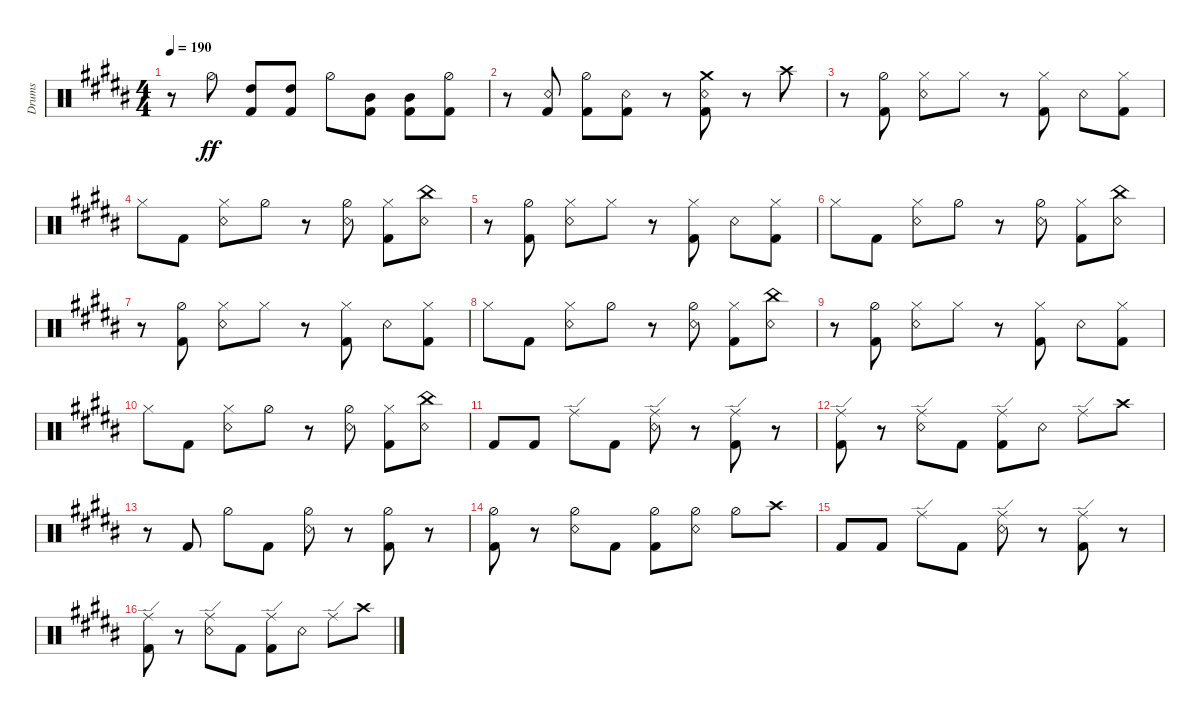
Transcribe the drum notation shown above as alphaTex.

\bracketExtendMode groupsimilarinstruments
\otherSystemsTrackNameOrientation horizontal
\track ("Drumkit" "Drums") {instrument percussion}
\staff {score}
\articulation defaults
\ts (4 4)
\tempo 190
\clef neutral
\ks b
r.8{dy ff} "Hi-Hat (half)"{acc forcenatural}.8 ("Kick (hit) 2"{acc forcenatural} "High Tom (hit)"{acc forcenatural}).8 ("Kick (hit) 2"{acc forcenatural} "High Tom (hit)"{acc forcenatural}).8 "Hi-Hat (half)"{acc forcenatural}.8 ("Kick (hit) 2"{acc forcenatural} "Mid Tom (hit)"{acc forcenatural}).8 ("Kick (hit) 2"{acc forcenatural} "Mid Tom (hit)"{acc forcenatural}).8 ("Kick (hit) 2"{acc forcenatural} "Hi-Hat (half)"{acc forcenatural}).8 |
r.8 ("Kick (hit) 2"{acc forcenatural} "Snare (rim shot)"{acc forcenatural}).8 ("Kick (hit) 2"{acc forcenatural} "Hi-Hat (half)"{acc forcenatural}).8 ("Kick (hit) 2"{acc forcenatural} "Snare (rim shot)"{acc forcenatural}).8 r.8 ("Kick (hit) 2"{acc forcenatural} "Snare (rim shot)"{acc forcenatural} "Crash medium (hit)"{acc forcenatural}).8 r.8 "Crash high (hit)"{acc forcenatural}.8 |
r.8 ("Kick (hit) 2"{acc forcenatural} "Hi-Hat (half)"{acc forcenatural}).8 ("Snare (rim shot)"{acc forcenatural} "Hi-Hat (closed)"{acc forcenatural}).8 "Hi-Hat (closed)"{acc forcenatural}.8 r.8 ("Hi-Hat (closed)"{acc forcenatural} "Kick (hit) 2"{acc forcenatural}).8 "Snare (rim shot)"{acc forcenatural}.8 ("Kick (hit) 2"{acc forcenatural} "Hi-Hat (closed)"{acc forcenatural}).8 |
"Hi-Hat (closed)"{acc forcenatural}.8 "Kick (hit) 2"{acc forcenatural}.8 ("Snare (rim shot)"{acc forcenatural} "Hi-Hat (closed)"{acc forcenatural}).8 "Hi-Hat (half)"{acc forcenatural}.8 r.8 ("Hi-Hat (half)"{acc forcenatural} "Snare (rim shot)"{acc forcenatural}).8 ("Hi-Hat (closed)"{acc forcenatural} "Kick (hit) 2"{acc forcenatural}).8 ("Snare (rim shot)"{acc forcenatural} "China (hit)"{acc forcenatural}).8 |
r.8 ("Kick (hit) 2"{acc forcenatural} "Hi-Hat (half)"{acc forcenatural}).8 ("Snare (rim shot)"{acc forcenatural} "Hi-Hat (closed)"{acc forcenatural}).8 "Hi-Hat (closed)"{acc forcenatural}.8 r.8 ("Hi-Hat (closed)"{acc forcenatural} "Kick (hit) 2"{acc forcenatural}).8 "Snare (rim shot)"{acc forcenatural}.8 ("Kick (hit) 2"{acc forcenatural} "Hi-Hat (closed)"{acc forcenatural}).8 |
"Hi-Hat (closed)"{acc forcenatural}.8 "Kick (hit) 2"{acc forcenatural}.8 ("Snare (rim shot)"{acc forcenatural} "Hi-Hat (closed)"{acc forcenatural}).8 "Hi-Hat (half)"{acc forcenatural}.8 r.8 ("Hi-Hat (half)"{acc forcenatural} "Snare (rim shot)"{acc forcenatural}).8 ("Hi-Hat (closed)"{acc forcenatural} "Kick (hit) 2"{acc forcenatural}).8 ("Snare (rim shot)"{acc forcenatural} "China (hit)"{acc forcenatural}).8 |
r.8 ("Kick (hit) 2"{acc forcenatural} "Hi-Hat (half)"{acc forcenatural}).8 ("Snare (rim shot)"{acc forcenatural} "Hi-Hat (closed)"{acc forcenatural}).8 "Hi-Hat (closed)"{acc forcenatural}.8 r.8 ("Hi-Hat (closed)"{acc forcenatural} "Kick (hit) 2"{acc forcenatural}).8 "Snare (rim shot)"{acc forcenatural}.8 ("Kick (hit) 2"{acc forcenatural} "Hi-Hat (closed)"{acc forcenatural}).8 |
"Hi-Hat (closed)"{acc forcenatural}.8 "Kick (hit) 2"{acc forcenatural}.8 ("Snare (rim shot)"{acc forcenatural} "Hi-Hat (closed)"{acc forcenatural}).8 "Hi-Hat (half)"{acc forcenatural}.8 r.8 ("Hi-Hat (half)"{acc forcenatural} "Snare (rim shot)"{acc forcenatural}).8 ("Hi-Hat (closed)"{acc forcenatural} "Kick (hit) 2"{acc forcenatural}).8 ("Snare (rim shot)"{acc forcenatural} "China (hit)"{acc forcenatural}).8 |
r.8 ("Kick (hit) 2"{acc forcenatural} "Hi-Hat (half)"{acc forcenatural}).8 ("Snare (rim shot)"{acc forcenatural} "Hi-Hat (closed)"{acc forcenatural}).8 "Hi-Hat (closed)"{acc forcenatural}.8 r.8 ("Hi-Hat (closed)"{acc forcenatural} "Kick (hit) 2"{acc forcenatural}).8 "Snare (rim shot)"{acc forcenatural}.8 ("Kick (hit) 2"{acc forcenatural} "Hi-Hat (closed)"{acc forcenatural}).8 |
"Hi-Hat (closed)"{acc forcenatural}.8 "Kick (hit) 2"{acc forcenatural}.8 ("Snare (rim shot)"{acc forcenatural} "Hi-Hat (closed)"{acc forcenatural}).8 "Hi-Hat (half)"{acc forcenatural}.8 r.8 ("Hi-Hat (half)"{acc forcenatural} "Snare (rim shot)"{acc forcenatural}).8 ("Hi-Hat (closed)"{acc forcenatural} "Kick (hit) 2"{acc forcenatural}).8 ("Snare (rim shot)"{acc forcenatural} "China (hit)"{acc forcenatural}).8 |
"Kick (hit) 2"{acc forcenatural}.8 "Kick (hit) 2"{acc forcenatural}.8 "Ride (edge)"{acc forcenatural}.8 "Kick (hit) 2"{acc forcenatural}.8 ("Snare (rim shot)"{acc forcenatural} "Ride (edge)"{acc forcenatural}).8 r.8 ("Kick (hit) 2"{acc forcenatural} "Ride (edge)"{acc forcenatural}).8 r.8 |
("Kick (hit) 2"{acc forcenatural} "Ride (edge)"{acc forcenatural}).8 r.8 ("Snare (rim shot)"{acc forcenatural} "Ride (edge)"{acc forcenatural}).8 "Kick (hit) 2"{acc forcenatural}.8 ("Kick (hit) 2"{acc forcenatural} "Ride (edge)"{acc forcenatural}).8 "Snare (rim shot)"{acc forcenatural}.8 "Ride (edge)"{acc forcenatural}.8 "Crash high (hit)"{acc forcenatural}.8 |
r.8 "Kick (hit) 2"{acc forcenatural}.8 "Hi-Hat (half)"{acc forcenatural}.8 "Kick (hit) 2"{acc forcenatural}.8 ("Snare (rim shot)"{acc forcenatural} "Hi-Hat (half)"{acc forcenatural}).8 r.8 ("Kick (hit) 2"{acc forcenatural} "Hi-Hat (half)"{acc forcenatural}).8 r.8 |
("Kick (hit) 2"{acc forcenatural} "Hi-Hat (half)"{acc forcenatural}).8 r.8 ("Snare (rim shot)"{acc forcenatural} "Hi-Hat (half)"{acc forcenatural}).8 "Kick (hit) 2"{acc forcenatural}.8 ("Kick (hit) 2"{acc forcenatural} "Hi-Hat (half)"{acc forcenatural}).8 ("Snare (rim shot)"{acc forcenatural} "Hi-Hat (half)"{acc forcenatural}).8 "Hi-Hat (half)"{acc forcenatural}.8 "Crash high (hit)"{acc forcenatural}.8 |
"Kick (hit) 2"{acc forcenatural}.8 "Kick (hit) 2"{acc forcenatural}.8 "Ride (edge)"{acc forcenatural}.8 "Kick (hit) 2"{acc forcenatural}.8 ("Snare (rim shot)"{acc forcenatural} "Ride (edge)"{acc forcenatural}).8 r.8 ("Kick (hit) 2"{acc forcenatural} "Ride (edge)"{acc forcenatural}).8 r.8 |
("Kick (hit) 2"{acc forcenatural} "Ride (edge)"{acc forcenatural}).8 r.8 ("Snare (rim shot)"{acc forcenatural} "Ride (edge)"{acc forcenatural}).8 "Kick (hit) 2"{acc forcenatural}.8 ("Kick (hit) 2"{acc forcenatural} "Ride (edge)"{acc forcenatural}).8 "Snare (rim shot)"{acc forcenatural}.8 "Ride (edge)"{acc forcenatural}.8 "Crash high (hit)"{acc forcenatural}.8
